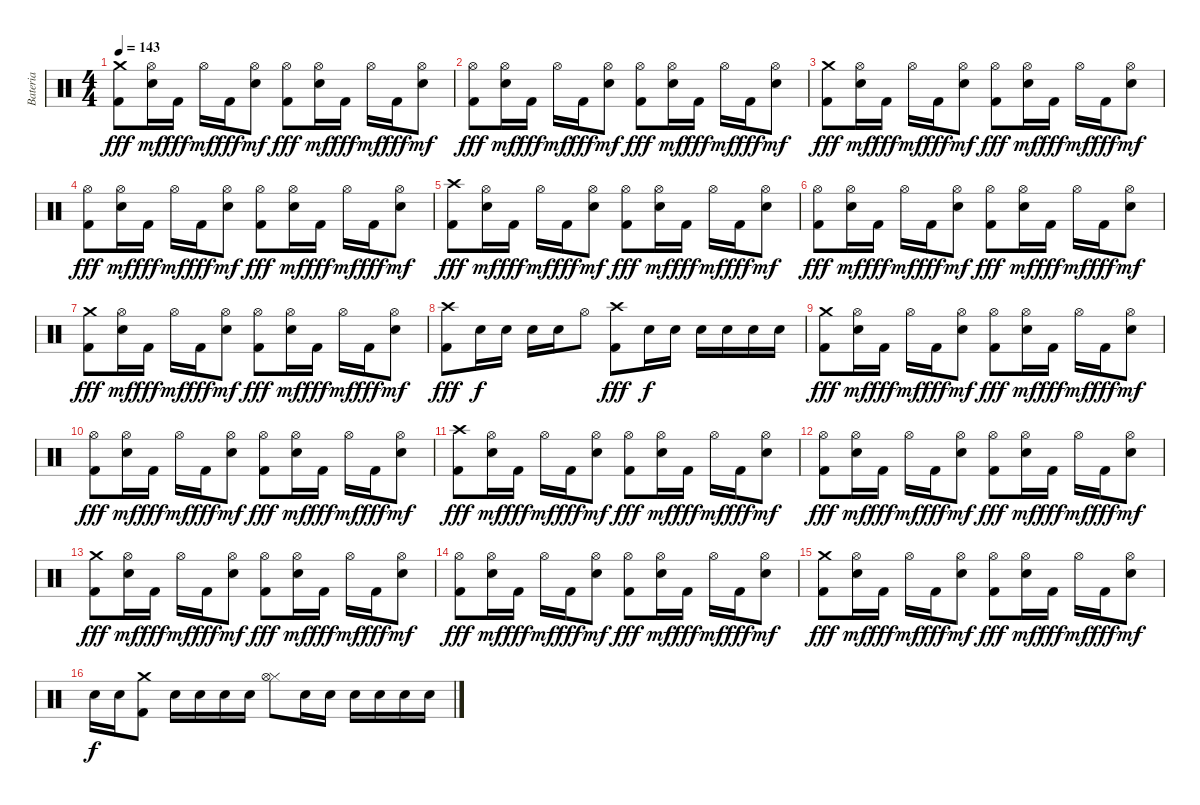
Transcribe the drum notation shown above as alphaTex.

\track ("Bateria" "Bateria") {instrument percussion}
\staff {score}
\articulation defaults
\ts (4 4)
\tempo 143
\clef neutral
\ks c
("Crash medium (hit)" "Kick (hit) 2").8{dy fff} ("Hi-Hat (open)" "Electric Snare (hit)").16{dy mf} "Kick (hit) 2".16{dy fff} "Hi-Hat (open)".16{dy mf} "Kick (hit) 2".16{dy fff} ("Hi-Hat (open)" "Electric Snare (hit)").8{dy mf} ("Hi-Hat (open)" "Kick (hit) 2").8{dy fff} ("Hi-Hat (open)" "Electric Snare (hit)").16{dy mf} "Kick (hit) 2".16{dy fff} "Hi-Hat (open)".16{dy mf} "Kick (hit) 2".16{dy fff} ("Hi-Hat (open)" "Electric Snare (hit)").8{dy mf} |
("Hi-Hat (open)" "Kick (hit) 2").8{dy fff} ("Hi-Hat (open)" "Electric Snare (hit)").16{dy mf} "Kick (hit) 2".16{dy fff} "Hi-Hat (open)".16{dy mf} "Kick (hit) 2".16{dy fff} ("Hi-Hat (open)" "Electric Snare (hit)").8{dy mf} ("Hi-Hat (open)" "Kick (hit) 2").8{dy fff} ("Hi-Hat (open)" "Electric Snare (hit)").16{dy mf} "Kick (hit) 2".16{dy fff} "Hi-Hat (open)".16{dy mf} "Kick (hit) 2".16{dy fff} ("Hi-Hat (open)" "Electric Snare (hit)").8{dy mf} |
("Crash medium (hit)" "Kick (hit) 2").8{dy fff} ("Hi-Hat (open)" "Electric Snare (hit)").16{dy mf} "Kick (hit) 2".16{dy fff} "Hi-Hat (open)".16{dy mf} "Kick (hit) 2".16{dy fff} ("Hi-Hat (open)" "Electric Snare (hit)").8{dy mf} ("Hi-Hat (open)" "Kick (hit) 2").8{dy fff} ("Hi-Hat (open)" "Electric Snare (hit)").16{dy mf} "Kick (hit) 2".16{dy fff} "Hi-Hat (open)".16{dy mf} "Kick (hit) 2".16{dy fff} ("Hi-Hat (open)" "Electric Snare (hit)").8{dy mf} |
("Hi-Hat (open)" "Kick (hit) 2").8{dy fff} ("Hi-Hat (open)" "Electric Snare (hit)").16{dy mf} "Kick (hit) 2".16{dy fff} "Hi-Hat (open)".16{dy mf} "Kick (hit) 2".16{dy fff} ("Hi-Hat (open)" "Electric Snare (hit)").8{dy mf} ("Hi-Hat (open)" "Kick (hit) 2").8{dy fff} ("Hi-Hat (open)" "Electric Snare (hit)").16{dy mf} "Kick (hit) 2".16{dy fff} "Hi-Hat (open)".16{dy mf} "Kick (hit) 2".16{dy fff} ("Hi-Hat (open)" "Electric Snare (hit)").8{dy mf} |
("Crash high (hit)" "Kick (hit) 2").8{dy fff} ("Hi-Hat (open)" "Electric Snare (hit)").16{dy mf} "Kick (hit) 2".16{dy fff} "Hi-Hat (open)".16{dy mf} "Kick (hit) 2".16{dy fff} ("Hi-Hat (open)" "Electric Snare (hit)").8{dy mf} ("Hi-Hat (open)" "Kick (hit) 2").8{dy fff} ("Hi-Hat (open)" "Electric Snare (hit)").16{dy mf} "Kick (hit) 2".16{dy fff} "Hi-Hat (open)".16{dy mf} "Kick (hit) 2".16{dy fff} ("Hi-Hat (open)" "Electric Snare (hit)").8{dy mf} |
("Hi-Hat (open)" "Kick (hit) 2").8{dy fff} ("Hi-Hat (open)" "Electric Snare (hit)").16{dy mf} "Kick (hit) 2".16{dy fff} "Hi-Hat (open)".16{dy mf} "Kick (hit) 2".16{dy fff} ("Hi-Hat (open)" "Electric Snare (hit)").8{dy mf} ("Hi-Hat (open)" "Kick (hit) 2").8{dy fff} ("Hi-Hat (open)" "Electric Snare (hit)").16{dy mf} "Kick (hit) 2".16{dy fff} "Hi-Hat (open)".16{dy mf} "Kick (hit) 2".16{dy fff} ("Hi-Hat (open)" "Electric Snare (hit)").8{dy mf} |
("Crash medium (hit)" "Kick (hit) 2").8{dy fff} ("Hi-Hat (open)" "Electric Snare (hit)").16{dy mf} "Kick (hit) 2".16{dy fff} "Hi-Hat (open)".16{dy mf} "Kick (hit) 2".16{dy fff} ("Hi-Hat (open)" "Electric Snare (hit)").8{dy mf} ("Hi-Hat (open)" "Kick (hit) 2").8{dy fff} ("Hi-Hat (open)" "Electric Snare (hit)").16{dy mf} "Kick (hit) 2".16{dy fff} "Hi-Hat (open)".16{dy mf} "Kick (hit) 2".16{dy fff} ("Hi-Hat (open)" "Electric Snare (hit)").8{dy mf} |
("Crash high (hit)" "Kick (hit) 2").8{dy fff} "Electric Snare (hit)".16{dy f} "Electric Snare (hit)".16 "Electric Snare (hit)".16 "Electric Snare (hit)".16 "Hi-Hat (open)".8 ("Crash high (hit)" "Kick (hit) 2").8{dy fff} "Electric Snare (hit)".16{dy f} "Electric Snare (hit)".16 "Electric Snare (hit)".16 "Electric Snare (hit)".16 "Electric Snare (hit)".16 "Electric Snare (hit)".16 |
("Crash medium (hit)" "Kick (hit) 2").8{dy fff} ("Hi-Hat (open)" "Electric Snare (hit)").16{dy mf} "Kick (hit) 2".16{dy fff} "Hi-Hat (open)".16{dy mf} "Kick (hit) 2".16{dy fff} ("Hi-Hat (open)" "Electric Snare (hit)").8{dy mf} ("Hi-Hat (open)" "Kick (hit) 2").8{dy fff} ("Hi-Hat (open)" "Electric Snare (hit)").16{dy mf} "Kick (hit) 2".16{dy fff} "Hi-Hat (open)".16{dy mf} "Kick (hit) 2".16{dy fff} ("Hi-Hat (open)" "Electric Snare (hit)").8{dy mf} |
("Hi-Hat (open)" "Kick (hit) 2").8{dy fff} ("Hi-Hat (open)" "Electric Snare (hit)").16{dy mf} "Kick (hit) 2".16{dy fff} "Hi-Hat (open)".16{dy mf} "Kick (hit) 2".16{dy fff} ("Hi-Hat (open)" "Electric Snare (hit)").8{dy mf} ("Hi-Hat (open)" "Kick (hit) 2").8{dy fff} ("Hi-Hat (open)" "Electric Snare (hit)").16{dy mf} "Kick (hit) 2".16{dy fff} "Hi-Hat (open)".16{dy mf} "Kick (hit) 2".16{dy fff} ("Hi-Hat (open)" "Electric Snare (hit)").8{dy mf} |
("Crash high (hit)" "Kick (hit) 2").8{dy fff} ("Hi-Hat (open)" "Electric Snare (hit)").16{dy mf} "Kick (hit) 2".16{dy fff} "Hi-Hat (open)".16{dy mf} "Kick (hit) 2".16{dy fff} ("Hi-Hat (open)" "Electric Snare (hit)").8{dy mf} ("Hi-Hat (open)" "Kick (hit) 2").8{dy fff} ("Hi-Hat (open)" "Electric Snare (hit)").16{dy mf} "Kick (hit) 2".16{dy fff} "Hi-Hat (open)".16{dy mf} "Kick (hit) 2".16{dy fff} ("Hi-Hat (open)" "Electric Snare (hit)").8{dy mf} |
("Hi-Hat (open)" "Kick (hit) 2").8{dy fff} ("Hi-Hat (open)" "Electric Snare (hit)").16{dy mf} "Kick (hit) 2".16{dy fff} "Hi-Hat (open)".16{dy mf} "Kick (hit) 2".16{dy fff} ("Hi-Hat (open)" "Electric Snare (hit)").8{dy mf} ("Hi-Hat (open)" "Kick (hit) 2").8{dy fff} ("Hi-Hat (open)" "Electric Snare (hit)").16{dy mf} "Kick (hit) 2".16{dy fff} "Hi-Hat (open)".16{dy mf} "Kick (hit) 2".16{dy fff} ("Hi-Hat (open)" "Electric Snare (hit)").8{dy mf} |
("Crash medium (hit)" "Kick (hit) 2").8{dy fff} ("Hi-Hat (open)" "Electric Snare (hit)").16{dy mf} "Kick (hit) 2".16{dy fff} "Hi-Hat (open)".16{dy mf} "Kick (hit) 2".16{dy fff} ("Hi-Hat (open)" "Electric Snare (hit)").8{dy mf} ("Hi-Hat (open)" "Kick (hit) 2").8{dy fff} ("Hi-Hat (open)" "Electric Snare (hit)").16{dy mf} "Kick (hit) 2".16{dy fff} "Hi-Hat (open)".16{dy mf} "Kick (hit) 2".16{dy fff} ("Hi-Hat (open)" "Electric Snare (hit)").8{dy mf} |
("Hi-Hat (open)" "Kick (hit) 2").8{dy fff} ("Hi-Hat (open)" "Electric Snare (hit)").16{dy mf} "Kick (hit) 2".16{dy fff} "Hi-Hat (open)".16{dy mf} "Kick (hit) 2".16{dy fff} ("Hi-Hat (open)" "Electric Snare (hit)").8{dy mf} ("Hi-Hat (open)" "Kick (hit) 2").8{dy fff} ("Hi-Hat (open)" "Electric Snare (hit)").16{dy mf} "Kick (hit) 2".16{dy fff} "Hi-Hat (open)".16{dy mf} "Kick (hit) 2".16{dy fff} ("Hi-Hat (open)" "Electric Snare (hit)").8{dy mf} |
("Crash medium (hit)" "Kick (hit) 2").8{dy fff} ("Hi-Hat (open)" "Electric Snare (hit)").16{dy mf} "Kick (hit) 2".16{dy fff} "Hi-Hat (open)".16{dy mf} "Kick (hit) 2".16{dy fff} ("Hi-Hat (open)" "Electric Snare (hit)").8{dy mf} ("Hi-Hat (open)" "Kick (hit) 2").8{dy fff} ("Hi-Hat (open)" "Electric Snare (hit)").16{dy mf} "Kick (hit) 2".16{dy fff} "Hi-Hat (open)".16{dy mf} "Kick (hit) 2".16{dy fff} ("Hi-Hat (open)" "Electric Snare (hit)").8{dy mf} |
"Electric Snare (hit)".16{dy f} "Electric Snare (hit)".16 ("Crash medium (hit)" "Kick (hit) 2").8 "Electric Snare (hit)".16 "Electric Snare (hit)".16 "Electric Snare (hit)".16 "Electric Snare (hit)".16 ("Hi-Hat (closed)" "Hi-Hat (open)").8 "Electric Snare (hit)".16 "Electric Snare (hit)".16 "Electric Snare (hit)".16 "Electric Snare (hit)".16 "Electric Snare (hit)".16 "Electric Snare (hit)".16
